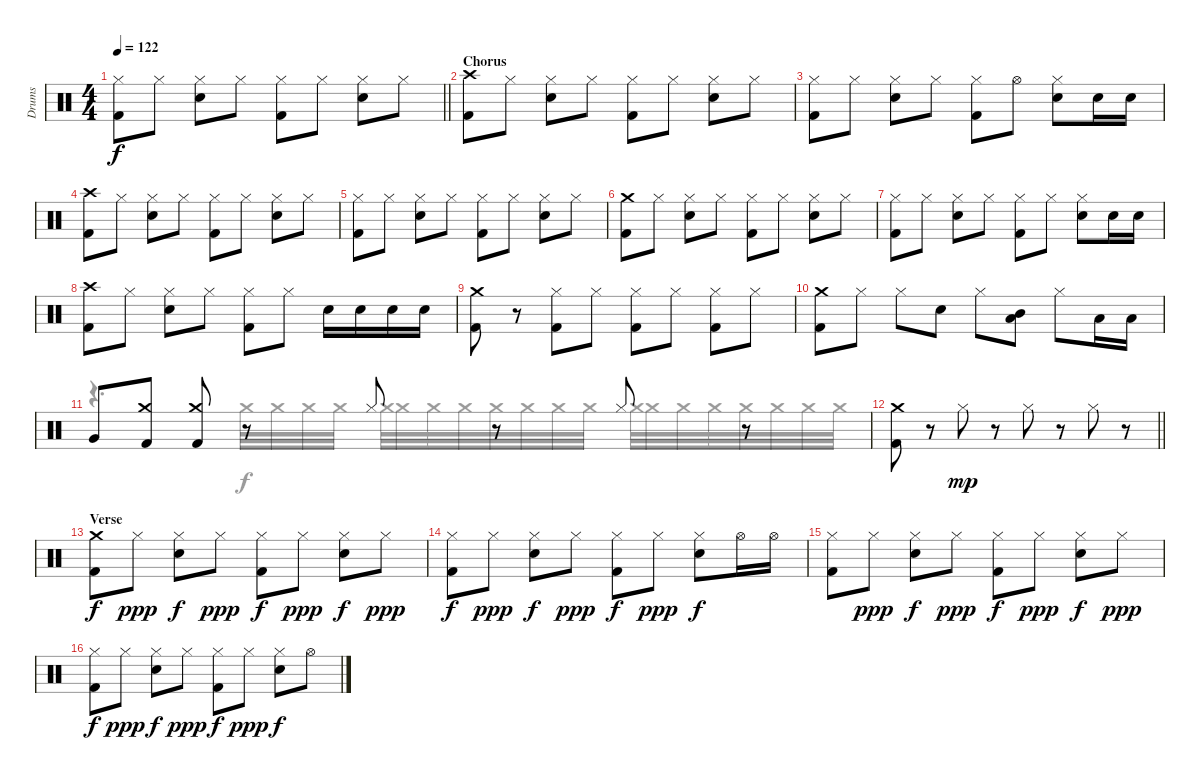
\track ("Drums" "Drums") {instrument percussion}
\staff {score}
\articulation defaults
\voice
\ts (4 4)
\tempo 122
\clef neutral
\barLineRight lightlight
\ks c
("Hi-Hat (closed)" "Kick (hit) 2").8{dy f} "Hi-Hat (closed)".8 ("Hi-Hat (closed)" "Electric Snare (hit)").8 "Hi-Hat (closed)".8 ("Hi-Hat (closed)" "Kick (hit) 2").8 "Hi-Hat (closed)".8 ("Hi-Hat (closed)" "Electric Snare (hit)").8 "Hi-Hat (closed)".8 |
\section ("" "Chorus")
("Crash high (hit)" "Kick (hit) 2").8 "Hi-Hat (closed)".8 ("Hi-Hat (closed)" "Electric Snare (hit)").8 "Hi-Hat (closed)".8 ("Hi-Hat (closed)" "Kick (hit) 2").8 "Hi-Hat (closed)".8 ("Hi-Hat (closed)" "Electric Snare (hit)").8 "Hi-Hat (closed)".8 |
("Hi-Hat (closed)" "Kick (hit) 2").8 "Hi-Hat (closed)".8 ("Hi-Hat (closed)" "Electric Snare (hit)").8 "Hi-Hat (closed)".8 ("Hi-Hat (closed)" "Kick (hit) 2").8 "Hi-Hat (open)".8 ("Hi-Hat (closed)" "Electric Snare (hit)").8 "Electric Snare (hit)".16 "Electric Snare (hit)".16 |
("Crash high (hit)" "Kick (hit) 2").8 "Hi-Hat (closed)".8 ("Hi-Hat (closed)" "Electric Snare (hit)").8 "Hi-Hat (closed)".8 ("Hi-Hat (closed)" "Kick (hit) 2").8 "Hi-Hat (closed)".8 ("Hi-Hat (closed)" "Electric Snare (hit)").8 "Hi-Hat (closed)".8 |
("Hi-Hat (closed)" "Kick (hit) 2").8 "Hi-Hat (closed)".8 ("Hi-Hat (closed)" "Electric Snare (hit)").8 "Hi-Hat (closed)".8 ("Hi-Hat (closed)" "Kick (hit) 2").8 "Hi-Hat (closed)".8 ("Hi-Hat (closed)" "Electric Snare (hit)").8 "Hi-Hat (closed)".8 |
("Crash medium (hit)" "Kick (hit) 2").8 "Hi-Hat (closed)".8 ("Hi-Hat (closed)" "Electric Snare (hit)").8 "Hi-Hat (closed)".8 ("Hi-Hat (closed)" "Kick (hit) 2").8 "Hi-Hat (closed)".8 ("Hi-Hat (closed)" "Electric Snare (hit)").8 "Hi-Hat (closed)".8 |
("Hi-Hat (closed)" "Kick (hit) 2").8 "Hi-Hat (closed)".8 ("Hi-Hat (closed)" "Electric Snare (hit)").8 "Hi-Hat (closed)".8 ("Hi-Hat (closed)" "Kick (hit) 2").8 "Hi-Hat (closed)".8 ("Hi-Hat (closed)" "Electric Snare (hit)").8 "Electric Snare (hit)".16 "Electric Snare (hit)".16 |
("Crash high (hit)" "Kick (hit) 2").8 "Hi-Hat (closed)".8 ("Hi-Hat (closed)" "Electric Snare (hit)").8 "Hi-Hat (closed)".8 ("Hi-Hat (closed)" "Kick (hit) 2").8 "Hi-Hat (closed)".8 "Electric Snare (hit)".16 "Electric Snare (hit)".16 "Electric Snare (hit)".16 "Electric Snare (hit)".16 |
("Crash medium (hit)" "Kick (hit) 2").8 r.8 ("Hi-Hat (closed)" "Kick (hit) 2").8 "Hi-Hat (closed)".8 ("Hi-Hat (closed)" "Kick (hit) 2").8 "Hi-Hat (closed)".8 ("Hi-Hat (closed)" "Kick (hit) 2").8 "Hi-Hat (closed)".8 |
("Crash medium (hit)" "Kick (hit) 2").8 "Hi-Hat (closed)".8 "Hi-Hat (closed)".8 "Electric Snare (hit)".8 "Hi-Hat (closed)".8 ("Mid Tom (hit)" "Low Tom (hit)").8 "Hi-Hat (closed)".8 "Low Tom (hit)".16 "Low Tom (hit)".16 |
"Very Low Tom (hit)".8 ("Crash medium (hit)" "Kick (hit) 2").8 ("Crash medium (hit)" "Kick (hit) 2").8 r.8 "Hi-Hat (closed)".8 r.8 "Hi-Hat (closed)".8 r.8 |
\barLineRight lightlight
("Crash medium (hit)" "Kick (hit) 2").8 r.8 "Hi-Hat (closed)".8{dy mp} r.8 "Hi-Hat (closed)".8 r.8 "Hi-Hat (closed)".8 r.8 |
\section ("" "Verse")
("Crash medium (hit)" "Kick (hit) 2").8{dy f} "Hi-Hat (closed)".8{dy ppp} ("Hi-Hat (closed)" "Electric Snare (hit)").8{dy f} "Hi-Hat (closed)".8{dy ppp} ("Hi-Hat (closed)" "Kick (hit) 2").8{dy f} "Hi-Hat (closed)".8{dy ppp} ("Hi-Hat (closed)" "Electric Snare (hit)").8{dy f} "Hi-Hat (closed)".8{dy ppp} |
("Hi-Hat (closed)" "Kick (hit) 2").8{dy f} "Hi-Hat (closed)".8{dy ppp} ("Hi-Hat (closed)" "Electric Snare (hit)").8{dy f} "Hi-Hat (closed)".8{dy ppp} ("Hi-Hat (closed)" "Kick (hit) 2").8{dy f} "Hi-Hat (closed)".8{dy ppp} ("Hi-Hat (closed)" "Electric Snare (hit)").8{dy f} "Hi-Hat (open)".16 "Hi-Hat (open)".16 |
("Hi-Hat (closed)" "Kick (hit) 2").8 "Hi-Hat (closed)".8{dy ppp} ("Hi-Hat (closed)" "Electric Snare (hit)").8{dy f} "Hi-Hat (closed)".8{dy ppp} ("Hi-Hat (closed)" "Kick (hit) 2").8{dy f} "Hi-Hat (closed)".8{dy ppp} ("Hi-Hat (closed)" "Electric Snare (hit)").8{dy f} "Hi-Hat (closed)".8{dy ppp} |
("Hi-Hat (closed)" "Kick (hit) 2").8{dy f} "Hi-Hat (closed)".8{dy ppp} ("Hi-Hat (closed)" "Electric Snare (hit)").8{dy f} "Hi-Hat (closed)".8{dy ppp} ("Hi-Hat (closed)" "Kick (hit) 2").8{dy f} "Hi-Hat (closed)".8{dy ppp} ("Hi-Hat (closed)" "Electric Snare (hit)").8{dy f} "Hi-Hat (open)".8
\voice
\clef neutral
\ottava regular
\simile none
\barLineRight lightlight
\ks c
|
|
|
|
|
|
|
|
|
|
r.4{d} "Crash medium (hit)".32 "Crash medium (hit)".32 "Crash medium (hit)".32 "Crash medium (hit)".32 "Crash medium (hit)".32 "Crash medium (hit)".32 "Crash medium (hit)".32 "Crash medium (hit)".32 "Crash medium (hit)".32 "Crash medium (hit)".32 "Crash medium (hit)".32 "Crash medium (hit)".32 "Crash medium (hit)".32 "Crash medium (hit)".32 "Crash medium (hit)".32 "Crash medium (hit)".32 "Crash medium (hit)".32 "Crash medium (hit)".32 "Crash medium (hit)".32 "Crash medium (hit)".32 |
\barLineRight lightlight
|
|
|
|
